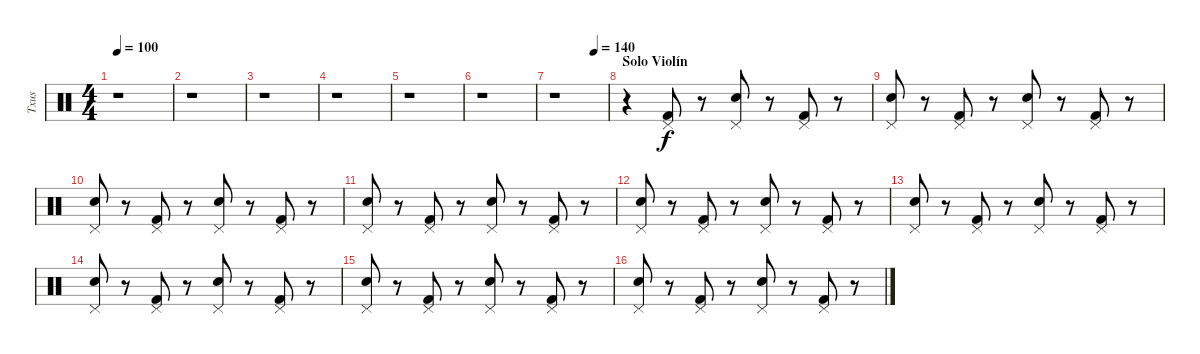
\track ("Txus" "Txus") {instrument percussion}
\staff {score}
\articulation defaults
\ts (4 4)
\tempo 100
\clef neutral
\ks c
r.1{dy f} |
r.1 |
r.1 |
r.1 |
r.1 |
r.1 |
\tempo (140 0.75)
r.1 |
\section ("" "Solo Violín")
r.4 ("Pedal Hi-Hat (hit)" "Kick (hit) 2").8 r.8 ("Pedal Hi-Hat (hit)" "Snare (hit) 2").8 r.8 ("Pedal Hi-Hat (hit)" "Kick (hit) 2").8 r.8 |
("Pedal Hi-Hat (hit)" "Snare (hit) 2").8 r.8 ("Pedal Hi-Hat (hit)" "Kick (hit) 2").8 r.8 ("Pedal Hi-Hat (hit)" "Snare (hit) 2").8 r.8 ("Pedal Hi-Hat (hit)" "Kick (hit) 2").8 r.8 |
("Pedal Hi-Hat (hit)" "Snare (hit) 2").8 r.8 ("Pedal Hi-Hat (hit)" "Kick (hit) 2").8 r.8 ("Pedal Hi-Hat (hit)" "Snare (hit) 2").8 r.8 ("Pedal Hi-Hat (hit)" "Kick (hit) 2").8 r.8 |
("Pedal Hi-Hat (hit)" "Snare (hit) 2").8 r.8 ("Pedal Hi-Hat (hit)" "Kick (hit) 2").8 r.8 ("Pedal Hi-Hat (hit)" "Snare (hit) 2").8 r.8 ("Pedal Hi-Hat (hit)" "Kick (hit) 2").8 r.8 |
("Pedal Hi-Hat (hit)" "Snare (hit) 2").8 r.8 ("Pedal Hi-Hat (hit)" "Kick (hit) 2").8 r.8 ("Pedal Hi-Hat (hit)" "Snare (hit) 2").8 r.8 ("Pedal Hi-Hat (hit)" "Kick (hit) 2").8 r.8 |
("Pedal Hi-Hat (hit)" "Snare (hit) 2").8 r.8 ("Pedal Hi-Hat (hit)" "Kick (hit) 2").8 r.8 ("Pedal Hi-Hat (hit)" "Snare (hit) 2").8 r.8 ("Pedal Hi-Hat (hit)" "Kick (hit) 2").8 r.8 |
("Pedal Hi-Hat (hit)" "Snare (hit) 2").8 r.8 ("Pedal Hi-Hat (hit)" "Kick (hit) 2").8 r.8 ("Pedal Hi-Hat (hit)" "Snare (hit) 2").8 r.8 ("Pedal Hi-Hat (hit)" "Kick (hit) 2").8 r.8 |
("Pedal Hi-Hat (hit)" "Snare (hit) 2").8 r.8 ("Pedal Hi-Hat (hit)" "Kick (hit) 2").8 r.8 ("Pedal Hi-Hat (hit)" "Snare (hit) 2").8 r.8 ("Pedal Hi-Hat (hit)" "Kick (hit) 2").8 r.8 |
("Pedal Hi-Hat (hit)" "Snare (hit) 2").8 r.8 ("Pedal Hi-Hat (hit)" "Kick (hit) 2").8 r.8 ("Pedal Hi-Hat (hit)" "Snare (hit) 2").8 r.8 ("Pedal Hi-Hat (hit)" "Kick (hit) 2").8 r.8
